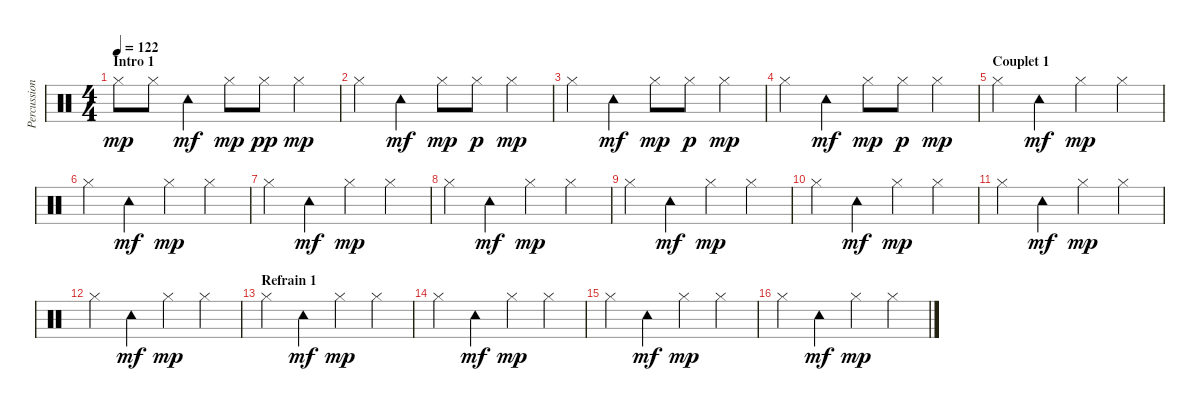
\track ("Percussions" "Percussion") {instrument percussion}
\staff {score}
\articulation defaults
\ts (4 4)
\section ("" "Intro 1")
\tempo 122
\clef neutral
\ks c "Hi-Hat (closed)".8{dy mp} "Hi-Hat (closed)".8 "Tambourine (hit)".4{dy mf} "Hi-Hat (closed)".8{dy mp} "Hi-Hat (closed)".8{dy pp} "Hi-Hat (closed)".4{dy mp}
|
"Hi-Hat (closed)".4 "Tambourine (hit)".4{dy mf} "Hi-Hat (closed)".8{dy mp} "Hi-Hat (closed)".8{dy p} "Hi-Hat (closed)".4{dy mp} |
"Hi-Hat (closed)".4 "Tambourine (hit)".4{dy mf} "Hi-Hat (closed)".8{dy mp} "Hi-Hat (closed)".8{dy p} "Hi-Hat (closed)".4{dy mp} |
"Hi-Hat (closed)".4 "Tambourine (hit)".4{dy mf} "Hi-Hat (closed)".8{dy mp} "Hi-Hat (closed)".8{dy p} "Hi-Hat (closed)".4{dy mp} |
\section ("" "Couplet 1")
"Hi-Hat (closed)".4 "Tambourine (hit)".4{dy mf} "Hi-Hat (closed)".4{dy mp} "Hi-Hat (closed)".4 |
"Hi-Hat (closed)".4 "Tambourine (hit)".4{dy mf} "Hi-Hat (closed)".4{dy mp} "Hi-Hat (closed)".4 |
"Hi-Hat (closed)".4 "Tambourine (hit)".4{dy mf} "Hi-Hat (closed)".4{dy mp} "Hi-Hat (closed)".4 |
"Hi-Hat (closed)".4 "Tambourine (hit)".4{dy mf} "Hi-Hat (closed)".4{dy mp} "Hi-Hat (closed)".4 |
"Hi-Hat (closed)".4 "Tambourine (hit)".4{dy mf} "Hi-Hat (closed)".4{dy mp} "Hi-Hat (closed)".4 |
"Hi-Hat (closed)".4 "Tambourine (hit)".4{dy mf} "Hi-Hat (closed)".4{dy mp} "Hi-Hat (closed)".4 |
"Hi-Hat (closed)".4 "Tambourine (hit)".4{dy mf} "Hi-Hat (closed)".4{dy mp} "Hi-Hat (closed)".4 |
"Hi-Hat (closed)".4 "Tambourine (hit)".4{dy mf} "Hi-Hat (closed)".4{dy mp} "Hi-Hat (closed)".4 |
\section ("" "Refrain 1")
"Hi-Hat (closed)".4 "Tambourine (hit)".4{dy mf} "Hi-Hat (closed)".4{dy mp} "Hi-Hat (closed)".4 |
"Hi-Hat (closed)".4 "Tambourine (hit)".4{dy mf} "Hi-Hat (closed)".4{dy mp} "Hi-Hat (closed)".4 |
"Hi-Hat (closed)".4 "Tambourine (hit)".4{dy mf} "Hi-Hat (closed)".4{dy mp} "Hi-Hat (closed)".4 |
"Hi-Hat (closed)".4 "Tambourine (hit)".4{dy mf} "Hi-Hat (closed)".4{dy mp} "Hi-Hat (closed)".4
